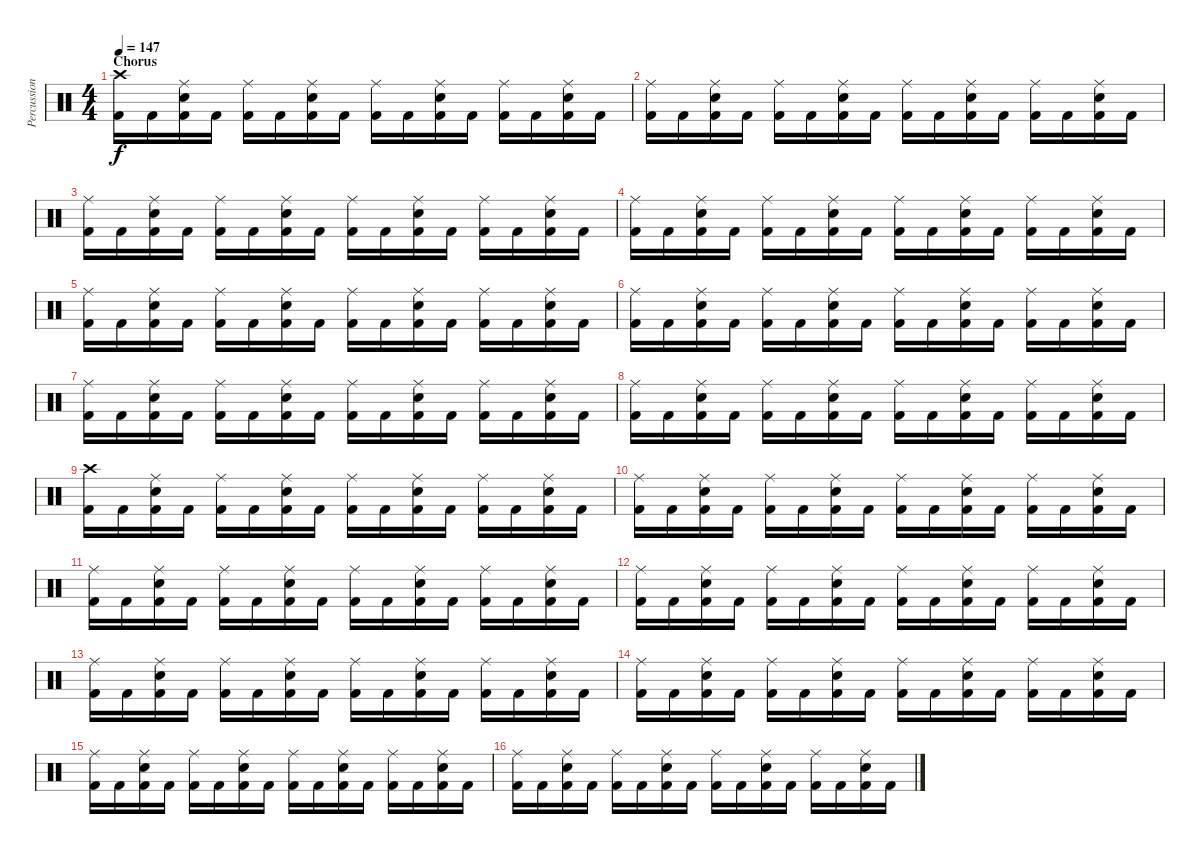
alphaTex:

\track ("Percussion" "Percussion") {instrument percussion}
\staff {score}
\articulation defaults
\ts (4 4)
\section ("" "Chorus")
\tempo 147
\clef neutral
\ks c
("Kick (hit) 2" "Crash high (hit)").16{dy f} "Kick (hit) 2".16 ("Kick (hit) 2" "Snare (hit) 2" "Ride (middle)").16 "Kick (hit) 2".16 ("Kick (hit) 2" "Ride (middle)").16 "Kick (hit) 2".16 ("Kick (hit) 2" "Snare (hit) 2" "Ride (middle)").16 "Kick (hit) 2".16 ("Kick (hit) 2" "Ride (middle)").16 "Kick (hit) 2".16 ("Kick (hit) 2" "Snare (hit) 2" "Ride (middle)").16 "Kick (hit) 2".16 ("Kick (hit) 2" "Ride (middle)").16 "Kick (hit) 2".16 ("Kick (hit) 2" "Snare (hit) 2" "Ride (middle)").16 "Kick (hit) 2".16 |
("Kick (hit) 2" "Ride (middle)").16 "Kick (hit) 2".16 ("Kick (hit) 2" "Snare (hit) 2" "Ride (middle)").16 "Kick (hit) 2".16 ("Kick (hit) 2" "Ride (middle)").16 "Kick (hit) 2".16 ("Kick (hit) 2" "Snare (hit) 2" "Ride (middle)").16 "Kick (hit) 2".16 ("Kick (hit) 2" "Ride (middle)").16 "Kick (hit) 2".16 ("Kick (hit) 2" "Snare (hit) 2" "Ride (middle)").16 "Kick (hit) 2".16 ("Kick (hit) 2" "Ride (middle)").16 "Kick (hit) 2".16 ("Kick (hit) 2" "Snare (hit) 2" "Ride (middle)").16 "Kick (hit) 2".16 |
("Kick (hit) 2" "Ride (middle)").16 "Kick (hit) 2".16 ("Kick (hit) 2" "Snare (hit) 2" "Ride (middle)").16 "Kick (hit) 2".16 ("Kick (hit) 2" "Ride (middle)").16 "Kick (hit) 2".16 ("Kick (hit) 2" "Snare (hit) 2" "Ride (middle)").16 "Kick (hit) 2".16 ("Kick (hit) 2" "Ride (middle)").16 "Kick (hit) 2".16 ("Kick (hit) 2" "Snare (hit) 2" "Ride (middle)").16 "Kick (hit) 2".16 ("Kick (hit) 2" "Ride (middle)").16 "Kick (hit) 2".16 ("Kick (hit) 2" "Snare (hit) 2" "Ride (middle)").16 "Kick (hit) 2".16 |
("Kick (hit) 2" "Ride (middle)").16 "Kick (hit) 2".16 ("Kick (hit) 2" "Snare (hit) 2" "Ride (middle)").16 "Kick (hit) 2".16 ("Kick (hit) 2" "Ride (middle)").16 "Kick (hit) 2".16 ("Kick (hit) 2" "Snare (hit) 2" "Ride (middle)").16 "Kick (hit) 2".16 ("Kick (hit) 2" "Ride (middle)").16 "Kick (hit) 2".16 ("Kick (hit) 2" "Snare (hit) 2" "Ride (middle)").16 "Kick (hit) 2".16 ("Kick (hit) 2" "Ride (middle)").16 "Kick (hit) 2".16 ("Kick (hit) 2" "Snare (hit) 2" "Ride (middle)").16 "Kick (hit) 2".16 |
("Kick (hit) 2" "Ride (middle)").16 "Kick (hit) 2".16 ("Kick (hit) 2" "Snare (hit) 2" "Ride (middle)").16 "Kick (hit) 2".16 ("Kick (hit) 2" "Ride (middle)").16 "Kick (hit) 2".16 ("Kick (hit) 2" "Snare (hit) 2" "Ride (middle)").16 "Kick (hit) 2".16 ("Kick (hit) 2" "Ride (middle)").16 "Kick (hit) 2".16 ("Kick (hit) 2" "Snare (hit) 2" "Ride (middle)").16 "Kick (hit) 2".16 ("Kick (hit) 2" "Ride (middle)").16 "Kick (hit) 2".16 ("Kick (hit) 2" "Snare (hit) 2" "Ride (middle)").16 "Kick (hit) 2".16 |
("Kick (hit) 2" "Ride (middle)").16 "Kick (hit) 2".16 ("Kick (hit) 2" "Snare (hit) 2" "Ride (middle)").16 "Kick (hit) 2".16 ("Kick (hit) 2" "Ride (middle)").16 "Kick (hit) 2".16 ("Kick (hit) 2" "Snare (hit) 2" "Ride (middle)").16 "Kick (hit) 2".16 ("Kick (hit) 2" "Ride (middle)").16 "Kick (hit) 2".16 ("Kick (hit) 2" "Snare (hit) 2" "Ride (middle)").16 "Kick (hit) 2".16 ("Kick (hit) 2" "Ride (middle)").16 "Kick (hit) 2".16 ("Kick (hit) 2" "Snare (hit) 2" "Ride (middle)").16 "Kick (hit) 2".16 |
("Kick (hit) 2" "Ride (middle)").16 "Kick (hit) 2".16 ("Kick (hit) 2" "Snare (hit) 2" "Ride (middle)").16 "Kick (hit) 2".16 ("Kick (hit) 2" "Ride (middle)").16 "Kick (hit) 2".16 ("Kick (hit) 2" "Snare (hit) 2" "Ride (middle)").16 "Kick (hit) 2".16 ("Kick (hit) 2" "Ride (middle)").16 "Kick (hit) 2".16 ("Kick (hit) 2" "Snare (hit) 2" "Ride (middle)").16 "Kick (hit) 2".16 ("Kick (hit) 2" "Ride (middle)").16 "Kick (hit) 2".16 ("Kick (hit) 2" "Snare (hit) 2" "Ride (middle)").16 "Kick (hit) 2".16 |
("Kick (hit) 2" "Ride (middle)").16 "Kick (hit) 2".16 ("Kick (hit) 2" "Snare (hit) 2" "Ride (middle)").16 "Kick (hit) 2".16 ("Kick (hit) 2" "Ride (middle)").16 "Kick (hit) 2".16 ("Kick (hit) 2" "Snare (hit) 2" "Ride (middle)").16 "Kick (hit) 2".16 ("Kick (hit) 2" "Ride (middle)").16 "Kick (hit) 2".16 ("Kick (hit) 2" "Snare (hit) 2" "Ride (middle)").16 "Kick (hit) 2".16 ("Kick (hit) 2" "Ride (middle)").16 "Kick (hit) 2".16 ("Kick (hit) 2" "Snare (hit) 2" "Ride (middle)").16 "Kick (hit) 2".16 |
("Kick (hit) 2" "Crash high (hit)").16 "Kick (hit) 2".16 ("Kick (hit) 2" "Snare (hit) 2" "Ride (middle)").16 "Kick (hit) 2".16 ("Kick (hit) 2" "Ride (middle)").16 "Kick (hit) 2".16 ("Kick (hit) 2" "Snare (hit) 2" "Ride (middle)").16 "Kick (hit) 2".16 ("Kick (hit) 2" "Ride (middle)").16 "Kick (hit) 2".16 ("Kick (hit) 2" "Snare (hit) 2" "Ride (middle)").16 "Kick (hit) 2".16 ("Kick (hit) 2" "Ride (middle)").16 "Kick (hit) 2".16 ("Kick (hit) 2" "Snare (hit) 2" "Ride (middle)").16 "Kick (hit) 2".16 |
("Kick (hit) 2" "Ride (middle)").16 "Kick (hit) 2".16 ("Kick (hit) 2" "Snare (hit) 2" "Ride (middle)").16 "Kick (hit) 2".16 ("Kick (hit) 2" "Ride (middle)").16 "Kick (hit) 2".16 ("Kick (hit) 2" "Snare (hit) 2" "Ride (middle)").16 "Kick (hit) 2".16 ("Kick (hit) 2" "Ride (middle)").16 "Kick (hit) 2".16 ("Kick (hit) 2" "Snare (hit) 2" "Ride (middle)").16 "Kick (hit) 2".16 ("Kick (hit) 2" "Ride (middle)").16 "Kick (hit) 2".16 ("Kick (hit) 2" "Snare (hit) 2" "Ride (middle)").16 "Kick (hit) 2".16 |
("Kick (hit) 2" "Ride (middle)").16 "Kick (hit) 2".16 ("Kick (hit) 2" "Snare (hit) 2" "Ride (middle)").16 "Kick (hit) 2".16 ("Kick (hit) 2" "Ride (middle)").16 "Kick (hit) 2".16 ("Kick (hit) 2" "Snare (hit) 2" "Ride (middle)").16 "Kick (hit) 2".16 ("Kick (hit) 2" "Ride (middle)").16 "Kick (hit) 2".16 ("Kick (hit) 2" "Snare (hit) 2" "Ride (middle)").16 "Kick (hit) 2".16 ("Kick (hit) 2" "Ride (middle)").16 "Kick (hit) 2".16 ("Kick (hit) 2" "Snare (hit) 2" "Ride (middle)").16 "Kick (hit) 2".16 |
("Kick (hit) 2" "Ride (middle)").16 "Kick (hit) 2".16 ("Kick (hit) 2" "Snare (hit) 2" "Ride (middle)").16 "Kick (hit) 2".16 ("Kick (hit) 2" "Ride (middle)").16 "Kick (hit) 2".16 ("Kick (hit) 2" "Snare (hit) 2" "Ride (middle)").16 "Kick (hit) 2".16 ("Kick (hit) 2" "Ride (middle)").16 "Kick (hit) 2".16 ("Kick (hit) 2" "Snare (hit) 2" "Ride (middle)").16 "Kick (hit) 2".16 ("Kick (hit) 2" "Ride (middle)").16 "Kick (hit) 2".16 ("Kick (hit) 2" "Snare (hit) 2" "Ride (middle)").16 "Kick (hit) 2".16 |
("Kick (hit) 2" "Ride (middle)").16 "Kick (hit) 2".16 ("Kick (hit) 2" "Snare (hit) 2" "Ride (middle)").16 "Kick (hit) 2".16 ("Kick (hit) 2" "Ride (middle)").16 "Kick (hit) 2".16 ("Kick (hit) 2" "Snare (hit) 2" "Ride (middle)").16 "Kick (hit) 2".16 ("Kick (hit) 2" "Ride (middle)").16 "Kick (hit) 2".16 ("Kick (hit) 2" "Snare (hit) 2" "Ride (middle)").16 "Kick (hit) 2".16 ("Kick (hit) 2" "Ride (middle)").16 "Kick (hit) 2".16 ("Kick (hit) 2" "Snare (hit) 2" "Ride (middle)").16 "Kick (hit) 2".16 |
("Kick (hit) 2" "Ride (middle)").16 "Kick (hit) 2".16 ("Kick (hit) 2" "Snare (hit) 2" "Ride (middle)").16 "Kick (hit) 2".16 ("Kick (hit) 2" "Ride (middle)").16 "Kick (hit) 2".16 ("Kick (hit) 2" "Snare (hit) 2" "Ride (middle)").16 "Kick (hit) 2".16 ("Kick (hit) 2" "Ride (middle)").16 "Kick (hit) 2".16 ("Kick (hit) 2" "Snare (hit) 2" "Ride (middle)").16 "Kick (hit) 2".16 ("Kick (hit) 2" "Ride (middle)").16 "Kick (hit) 2".16 ("Kick (hit) 2" "Snare (hit) 2" "Ride (middle)").16 "Kick (hit) 2".16 |
("Kick (hit) 2" "Ride (middle)").16 "Kick (hit) 2".16 ("Kick (hit) 2" "Snare (hit) 2" "Ride (middle)").16 "Kick (hit) 2".16 ("Kick (hit) 2" "Ride (middle)").16 "Kick (hit) 2".16 ("Kick (hit) 2" "Snare (hit) 2" "Ride (middle)").16 "Kick (hit) 2".16 ("Kick (hit) 2" "Ride (middle)").16 "Kick (hit) 2".16 ("Kick (hit) 2" "Snare (hit) 2" "Ride (middle)").16 "Kick (hit) 2".16 ("Kick (hit) 2" "Ride (middle)").16 "Kick (hit) 2".16 ("Kick (hit) 2" "Snare (hit) 2" "Ride (middle)").16 "Kick (hit) 2".16 |
("Kick (hit) 2" "Ride (middle)").16 "Kick (hit) 2".16 ("Kick (hit) 2" "Snare (hit) 2" "Ride (middle)").16 "Kick (hit) 2".16 ("Kick (hit) 2" "Ride (middle)").16 "Kick (hit) 2".16 ("Kick (hit) 2" "Snare (hit) 2" "Ride (middle)").16 "Kick (hit) 2".16 ("Kick (hit) 2" "Ride (middle)").16 "Kick (hit) 2".16 ("Kick (hit) 2" "Snare (hit) 2" "Ride (middle)").16 "Kick (hit) 2".16 ("Kick (hit) 2" "Ride (middle)").16 "Kick (hit) 2".16 ("Kick (hit) 2" "Snare (hit) 2" "Ride (middle)").16 "Kick (hit) 2".16
